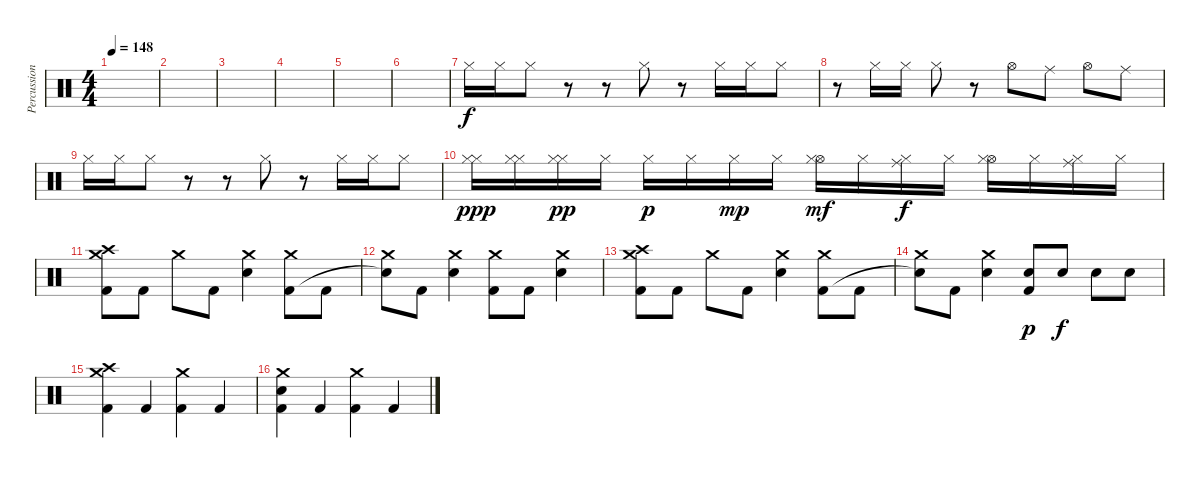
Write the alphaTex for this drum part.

\track ("Percussion" "Percussion") {instrument percussion}
\staff {score}
\articulation defaults
\ts (4 4)
\tempo 148
\clef neutral
\ks c
|
|
|
|
|
|
"Hi-Hat (closed)".16 "Hi-Hat (closed)".16 "Hi-Hat (closed)".8 r.8 r.8 "Hi-Hat (closed)".8 r.8 "Hi-Hat (closed)".16 "Hi-Hat (closed)".16 "Hi-Hat (closed)".8 |
r.8 "Hi-Hat (closed)".16 "Hi-Hat (closed)".16 "Hi-Hat (closed)".8 r.8 "Hi-Hat (open)".8 "Ride (middle)".8 "Hi-Hat (open)".8 "Ride (middle)".8 |
"Hi-Hat (closed)".16 "Hi-Hat (closed)".16 "Hi-Hat (closed)".8 r.8 r.8 "Hi-Hat (closed)".8 r.8 "Hi-Hat (closed)".16 "Hi-Hat (closed)".16 "Hi-Hat (closed)".8 |
("Hi-Hat (closed)" "Hi-Hat (closed)").16{dy ppp} ("Hi-Hat (closed)" "Hi-Hat (closed)").16 ("Hi-Hat (closed)" "Hi-Hat (closed)").16{dy pp} "Hi-Hat (closed)".16 "Hi-Hat (closed)".16{dy p} "Hi-Hat (closed)".16 "Hi-Hat (closed)".16{dy mp} "Hi-Hat (closed)".16 ("Hi-Hat (open)" "Hi-Hat (closed)").16{dy mf} "Hi-Hat (closed)".16 ("Ride (middle)" "Hi-Hat (closed)").16{dy f} "Hi-Hat (closed)".16 ("Hi-Hat (open)" "Hi-Hat (closed)").16 "Hi-Hat (closed)".16 ("Ride (middle)" "Hi-Hat (closed)").16 "Hi-Hat (closed)".16 |
("Crash medium (hit)" "Crash high (hit)" "Kick (hit) 2").8 "Kick (hit) 2".8 "Crash medium (hit)".8 "Kick (hit) 2".8 ("Crash medium (hit)" "Electric Snare (hit)").4 ("Crash medium (hit)" "Kick (hit) 2").8 "Kick (hit) 2".8 |
("Crash medium (hit)" "Snare (hit)"{t}).8 "Kick (hit) 2".8 ("Crash medium (hit)" "Electric Snare (hit)").4 ("Crash medium (hit)" "Kick (hit) 2").8 "Kick (hit) 2".8 ("Crash medium (hit)" "Electric Snare (hit)").4 |
("Crash medium (hit)" "Crash high (hit)" "Kick (hit) 2").8 "Kick (hit) 2".8 "Crash medium (hit)".8 "Kick (hit) 2".8 ("Crash medium (hit)" "Electric Snare (hit)").4 ("Crash medium (hit)" "Kick (hit) 2").8 "Kick (hit) 2".8 |
("Crash medium (hit)" "Snare (hit)"{t}).8 "Kick (hit) 2".8 ("Crash medium (hit)" "Electric Snare (hit)").4 ("Electric Snare (hit)" "Kick (hit) 2").8{dy p} "Electric Snare (hit)".8{dy f} "Electric Snare (hit)".8 "Electric Snare (hit)".8 |
("Crash medium (hit)" "Crash high (hit)" "Kick (hit) 2").4 "Kick (hit) 2".4 ("Crash medium (hit)" "Kick (hit) 2").4 "Kick (hit) 2".4 |
("Crash medium (hit)" "Electric Snare (hit)" "Kick (hit) 2").4 "Kick (hit) 2".4 ("Crash medium (hit)" "Kick (hit) 2").4 "Kick (hit) 2".4
